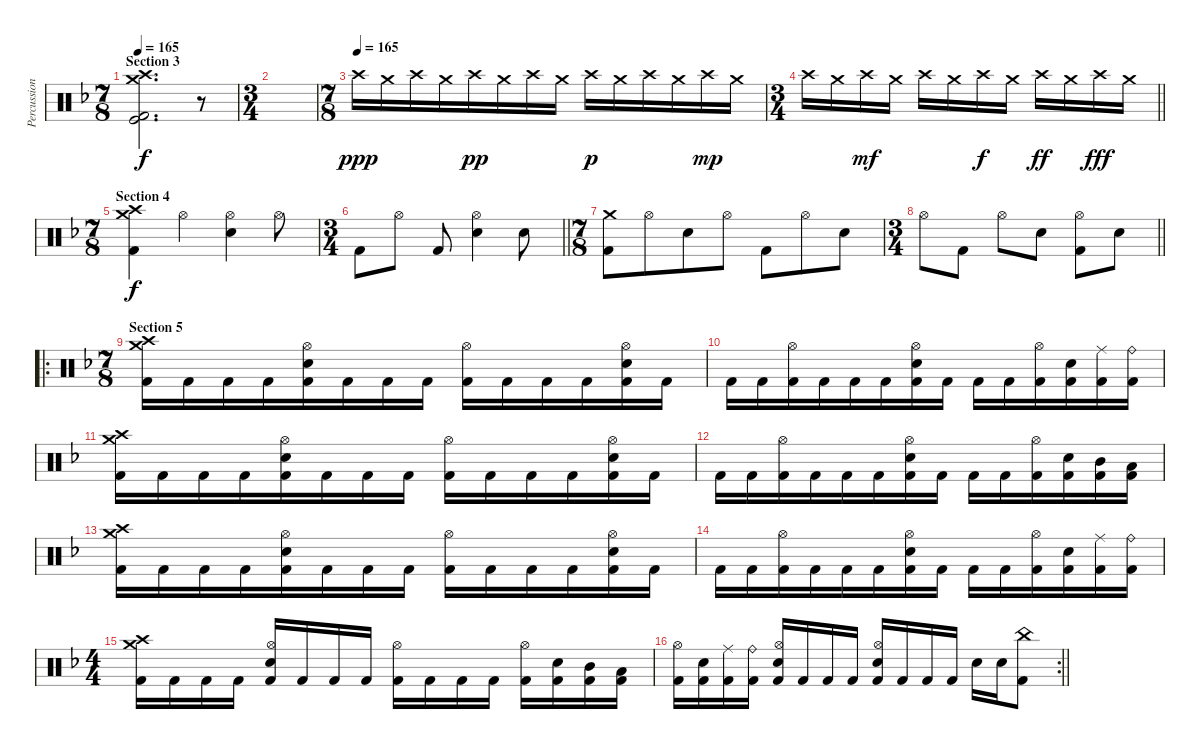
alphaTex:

\track ("Percussion" "Percussion") {instrument percussion}
\staff {score}
\articulation defaults
\ts (7 8)
\section ("" "Section 3")
\tempo 165
\clef neutral
\ks dminor
("Crash high (hit)" "Crash medium (hit)" "Kick (hit)" "Kick (hit) 2").2{d dy f} r.8 |
\ts (3 4)
|
\ts (7 8)
\tempo (165)
"Crash high (hit)".16{dy ppp} "Crash medium (hit)".16 "Crash high (hit)".16 "Crash medium (hit)".16 "Crash high (hit)".16{dy pp} "Crash medium (hit)".16 "Crash high (hit)".16 "Crash medium (hit)".16 "Crash high (hit)".16{dy p} "Crash medium (hit)".16 "Crash high (hit)".16 "Crash medium (hit)".16 "Crash high (hit)".16{dy mp} "Crash medium (hit)".16 |
\ts (3 4)
\barLineRight lightlight "Crash high (hit)".16 "Crash medium (hit)".16 "Crash high (hit)".16{dy mf} "Crash medium (hit)".16 "Crash high (hit)".16 "Crash medium (hit)".16 "Crash high (hit)".16{dy f} "Crash medium (hit)".16 "Crash high (hit)".16{dy ff} "Crash medium (hit)".16 "Crash high (hit)".16{dy fff} "Crash medium (hit)".16
|
\ts (7 8)
\section ("" "Section 4")
("Crash high (hit)" "Crash medium (hit)" "Kick (hit) 2").4{dy f} "Hi-Hat (open)".4 ("Hi-Hat (open)" "Electric Snare (hit)").4 "Hi-Hat (open)".8 |
\ts (3 4)
\barLineRight lightlight "Kick (hit) 2".8 "Hi-Hat (open)".8 "Kick (hit) 2".8
("Hi-Hat (open)" "Electric Snare (hit)").4 "Electric Snare (hit)".8 |
\ts (7 8)
("Crash medium (hit)" "Kick (hit) 2").8 "Hi-Hat (open)".8 "Electric Snare (hit)".8 "Hi-Hat (open)".8 "Kick (hit) 2".8 "Hi-Hat (open)".8 "Electric Snare (hit)".8 |
\ts (3 4)
\barLineRight lightlight "Hi-Hat (open)".8 "Kick (hit) 2".8 "Hi-Hat (open)".8 "Electric Snare (hit)".8
("Hi-Hat (open)" "Kick (hit) 2").8 "Electric Snare (hit)".8 |
\ro
\ts (7 8)
\section ("" "Section 5")
("Crash high (hit)" "Crash medium (hit)" "Kick (hit) 2").16 "Kick (hit) 2".16 "Kick (hit) 2".16 "Kick (hit) 2".16 ("Hi-Hat (open)" "Electric Snare (hit)" "Kick (hit) 2").16 "Kick (hit) 2".16 "Kick (hit) 2".16 "Kick (hit) 2".16 ("Hi-Hat (open)" "Kick (hit) 2").16 "Kick (hit) 2".16 "Kick (hit) 2".16 "Kick (hit) 2".16 ("Hi-Hat (open)" "Electric Snare (hit)" "Kick (hit) 2").16 "Kick (hit) 2".16 |
"Kick (hit) 2".16 "Kick (hit) 2".16 ("Hi-Hat (open)" "Kick (hit) 2").16 "Kick (hit) 2".16 "Kick (hit) 2".16 "Kick (hit) 2".16 ("Hi-Hat (open)" "Electric Snare (hit)" "Kick (hit) 2").16 "Kick (hit) 2".16 "Kick (hit) 2".16 "Kick (hit) 2".16 ("Hi-Hat (open)" "Kick (hit) 2").16 ("Electric Snare (hit)" "Kick (hit) 2").16 ("Ride (middle)" "Kick (hit) 2").16 ("Ride (bell)" "Kick (hit) 2").16 |
("Crash high (hit)" "Crash medium (hit)" "Kick (hit) 2").16 "Kick (hit) 2".16 "Kick (hit) 2".16 "Kick (hit) 2".16 ("Hi-Hat (open)" "Electric Snare (hit)" "Kick (hit) 2").16 "Kick (hit) 2".16 "Kick (hit) 2".16 "Kick (hit) 2".16 ("Hi-Hat (open)" "Kick (hit) 2").16 "Kick (hit) 2".16 "Kick (hit) 2".16 "Kick (hit) 2".16 ("Hi-Hat (open)" "Electric Snare (hit)" "Kick (hit) 2").16 "Kick (hit) 2".16 |
"Kick (hit) 2".16 "Kick (hit) 2".16 ("Hi-Hat (open)" "Kick (hit) 2").16 "Kick (hit) 2".16 "Kick (hit) 2".16 "Kick (hit) 2".16 ("Hi-Hat (open)" "Electric Snare (hit)" "Kick (hit) 2").16 "Kick (hit) 2".16 "Kick (hit) 2".16 "Kick (hit) 2".16 ("Hi-Hat (open)" "Kick (hit) 2").16 ("Electric Snare (hit)" "Kick (hit) 2").16 ("Mid Tom (hit)" "Kick (hit) 2").16 ("Low Tom (hit)" "Kick (hit) 2").16 |
("Crash high (hit)" "Crash medium (hit)" "Kick (hit) 2").16 "Kick (hit) 2".16 "Kick (hit) 2".16 "Kick (hit) 2".16 ("Hi-Hat (open)" "Electric Snare (hit)" "Kick (hit) 2").16 "Kick (hit) 2".16 "Kick (hit) 2".16 "Kick (hit) 2".16 ("Hi-Hat (open)" "Kick (hit) 2").16 "Kick (hit) 2".16 "Kick (hit) 2".16 "Kick (hit) 2".16 ("Hi-Hat (open)" "Electric Snare (hit)" "Kick (hit) 2").16 "Kick (hit) 2".16 |
"Kick (hit) 2".16 "Kick (hit) 2".16 ("Hi-Hat (open)" "Kick (hit) 2").16 "Kick (hit) 2".16 "Kick (hit) 2".16 "Kick (hit) 2".16 ("Hi-Hat (open)" "Electric Snare (hit)" "Kick (hit) 2").16 "Kick (hit) 2".16 "Kick (hit) 2".16 "Kick (hit) 2".16 ("Hi-Hat (open)" "Kick (hit) 2").16 ("Electric Snare (hit)" "Kick (hit) 2").16 ("Ride (middle)" "Kick (hit) 2").16 ("Ride (bell)" "Kick (hit) 2").16 |
\ts (4 4)
("Crash high (hit)" "Crash medium (hit)" "Kick (hit) 2").16 "Kick (hit) 2".16 "Kick (hit) 2".16 "Kick (hit) 2".16 ("Hi-Hat (open)" "Electric Snare (hit)" "Kick (hit) 2").16 "Kick (hit) 2".16 "Kick (hit) 2".16 "Kick (hit) 2".16 ("Hi-Hat (open)" "Kick (hit) 2").16 "Kick (hit) 2".16 "Kick (hit) 2".16 "Kick (hit) 2".16 ("Hi-Hat (open)" "Kick (hit) 2").16 ("Electric Snare (hit)" "Kick (hit) 2").16 ("Mid Tom (hit)" "Kick (hit) 2").16 ("Low Tom (hit)" "Kick (hit) 2").16 |
\rc 2
\barLineRight lightlight
("Hi-Hat (open)" "Kick (hit) 2").16 ("Electric Snare (hit)" "Kick (hit) 2").16 ("Ride (middle)" "Kick (hit) 2").16 ("Ride (bell)" "Kick (hit) 2").16 ("Hi-Hat (open)" "Electric Snare (hit)" "Kick (hit) 2").16 "Kick (hit) 2".16 "Kick (hit) 2".16 "Kick (hit) 2".16 ("Hi-Hat (open)" "Electric Snare (hit)" "Kick (hit) 2").16 "Kick (hit) 2".16 "Kick (hit) 2".16 "Kick (hit) 2".16 "Electric Snare (hit)".16 "Electric Snare (hit)".16 ("China (hit)" "Kick (hit) 2").8
